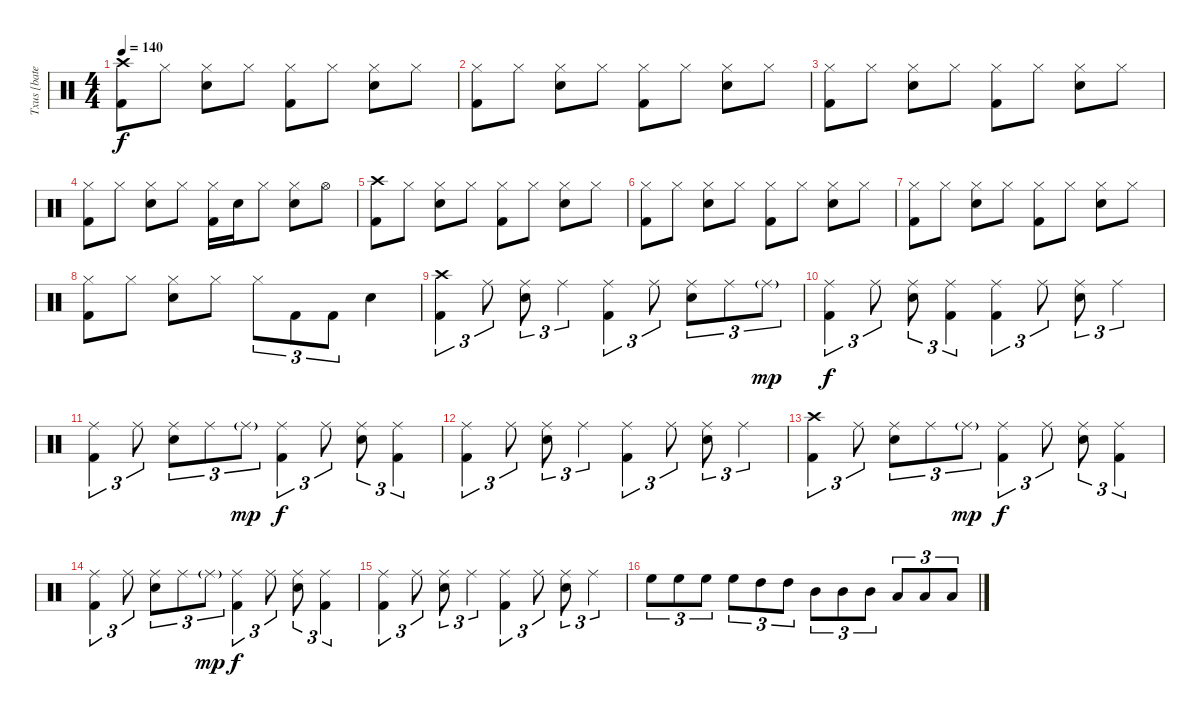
\track ("Txus [bateria]" "Txus [bate") {instrument percussion}
\staff {score}
\articulation defaults
\ts (4 4)
\tempo 140
\clef neutral
\ks c
("Crash high (hit)" "Kick (hit) 2").8{dy f} "Hi-Hat (closed)".8 ("Hi-Hat (closed)" "Snare (hit) 2").8 "Hi-Hat (closed)".8 ("Hi-Hat (closed)" "Kick (hit) 2").8 "Hi-Hat (closed)".8 ("Hi-Hat (closed)" "Snare (hit) 2").8 "Hi-Hat (closed)".8 |
("Hi-Hat (closed)" "Kick (hit) 2").8 "Hi-Hat (closed)".8 ("Hi-Hat (closed)" "Snare (hit) 2").8 "Hi-Hat (closed)".8 ("Hi-Hat (closed)" "Kick (hit) 2").8 "Hi-Hat (closed)".8 ("Hi-Hat (closed)" "Snare (hit) 2").8 "Hi-Hat (closed)".8 |
("Hi-Hat (closed)" "Kick (hit) 2").8 "Hi-Hat (closed)".8 ("Hi-Hat (closed)" "Snare (hit) 2").8 "Hi-Hat (closed)".8 ("Hi-Hat (closed)" "Kick (hit) 2").8 "Hi-Hat (closed)".8 ("Hi-Hat (closed)" "Snare (hit) 2").8 "Hi-Hat (closed)".8 |
("Hi-Hat (closed)" "Kick (hit) 2").8 "Hi-Hat (closed)".8 ("Hi-Hat (closed)" "Snare (hit) 2").8 "Hi-Hat (closed)".8 ("Hi-Hat (closed)" "Kick (hit) 2").16 "Snare (hit) 2".16 "Hi-Hat (closed)".8 ("Hi-Hat (closed)" "Snare (hit) 2").8 "Hi-Hat (open)".8 |
("Crash high (hit)" "Kick (hit) 2").8 "Hi-Hat (closed)".8 ("Hi-Hat (closed)" "Snare (hit) 2").8 "Hi-Hat (closed)".8 ("Hi-Hat (closed)" "Kick (hit) 2").8 "Hi-Hat (closed)".8 ("Hi-Hat (closed)" "Snare (hit) 2").8 "Hi-Hat (closed)".8 |
("Hi-Hat (closed)" "Kick (hit) 2").8 "Hi-Hat (closed)".8 ("Hi-Hat (closed)" "Snare (hit) 2").8 "Hi-Hat (closed)".8 ("Hi-Hat (closed)" "Kick (hit) 2").8 "Hi-Hat (closed)".8 ("Hi-Hat (closed)" "Snare (hit) 2").8 "Hi-Hat (closed)".8 |
("Hi-Hat (closed)" "Kick (hit) 2").8 "Hi-Hat (closed)".8 ("Hi-Hat (closed)" "Snare (hit) 2").8 "Hi-Hat (closed)".8 ("Hi-Hat (closed)" "Kick (hit) 2").8 "Hi-Hat (closed)".8 ("Hi-Hat (closed)" "Snare (hit) 2").8 "Hi-Hat (closed)".8 |
("Hi-Hat (closed)" "Kick (hit) 2").8 "Hi-Hat (closed)".8 ("Hi-Hat (closed)" "Snare (hit) 2").8 "Hi-Hat (closed)".8 "Hi-Hat (closed)".8{tu (3 2)} "Kick (hit) 2".8{tu (3 2)} "Kick (hit) 2".8{tu (3 2)} "Snare (hit) 2".4 |
("Crash high (hit)" "Kick (hit) 2").4{tu (3 2)} "Ride (middle)".8{tu (3 2)} ("Ride (middle)" "Snare (hit) 2").8{tu (3 2)} "Ride (middle)".4{tu (3 2)} ("Ride (middle)" "Kick (hit) 2").4{tu (3 2)} "Ride (middle)".8{tu (3 2)} ("Ride (middle)" "Snare (hit) 2").8{tu (3 2)} "Ride (middle)".8{tu (3 2)} "Ride (middle)"{g}.8{tu (3 2) dy mp} |
("Ride (middle)" "Kick (hit) 2").4{tu (3 2) dy f} "Ride (middle)".8{tu (3 2)} ("Ride (middle)" "Snare (hit) 2").8{tu (3 2)} ("Ride (middle)" "Kick (hit) 2").4{tu (3 2)} ("Ride (middle)" "Kick (hit) 2").4{tu (3 2)} "Ride (middle)".8{tu (3 2)} ("Ride (middle)" "Snare (hit) 2").8{tu (3 2)} "Ride (middle)".4{tu (3 2)} |
("Ride (middle)" "Kick (hit) 2").4{tu (3 2)} "Ride (middle)".8{tu (3 2)} ("Ride (middle)" "Snare (hit) 2").8{tu (3 2)} "Ride (middle)".8{tu (3 2)} "Ride (middle)"{g}.8{tu (3 2) dy mp} ("Ride (middle)" "Kick (hit) 2").4{tu (3 2) dy f} "Ride (middle)".8{tu (3 2)} ("Ride (middle)" "Snare (hit) 2").8{tu (3 2)} ("Ride (middle)" "Kick (hit) 2").4{tu (3 2)} |
("Ride (middle)" "Kick (hit) 2").4{tu (3 2)} "Ride (middle)".8{tu (3 2)} ("Ride (middle)" "Snare (hit) 2").8{tu (3 2)} "Ride (middle)".4{tu (3 2)} ("Ride (middle)" "Kick (hit) 2").4{tu (3 2)} "Ride (middle)".8{tu (3 2)} ("Ride (middle)" "Snare (hit) 2").8{tu (3 2)} "Ride (middle)".4{tu (3 2)} |
("Crash high (hit)" "Kick (hit) 2").4{tu (3 2)} "Ride (middle)".8{tu (3 2)} ("Ride (middle)" "Snare (hit) 2").8{tu (3 2)} "Ride (middle)".8{tu (3 2)} "Ride (middle)"{g}.8{tu (3 2) dy mp} ("Ride (middle)" "Kick (hit) 2").4{tu (3 2) dy f} "Ride (middle)".8{tu (3 2)} ("Ride (middle)" "Snare (hit) 2").8{tu (3 2)} ("Ride (middle)" "Kick (hit) 2").4{tu (3 2)} |
("Ride (middle)" "Kick (hit) 2").4{tu (3 2)} "Ride (middle)".8{tu (3 2)} ("Ride (middle)" "Snare (hit) 2").8{tu (3 2)} "Ride (middle)".8{tu (3 2)} "Ride (middle)"{g}.8{tu (3 2) dy mp} ("Ride (middle)" "Kick (hit) 2").4{tu (3 2) dy f} "Ride (middle)".8{tu (3 2)} ("Ride (middle)" "Snare (hit) 2").8{tu (3 2)} ("Ride (middle)" "Kick (hit) 2").4{tu (3 2)} |
("Ride (middle)" "Kick (hit) 2").4{tu (3 2)} "Ride (middle)".8{tu (3 2)} ("Ride (middle)" "Snare (hit) 2").8{tu (3 2)} "Ride (middle)".4{tu (3 2)} ("Ride (middle)" "Kick (hit) 2").4{tu (3 2)} "Ride (middle)".8{tu (3 2)} ("Ride (middle)" "Snare (hit) 2").8{tu (3 2)} "Ride (middle)".4{tu (3 2)} |
"High Floor Tom (hit)".8{tu (3 2)} "High Floor Tom (hit)".8{tu (3 2)} "High Floor Tom (hit)".8{tu (3 2)} "High Floor Tom (hit)".8{tu (3 2)} "High Tom (hit)".8{tu (3 2)} "High Tom (hit)".8{tu (3 2)} "Mid Tom (hit)".8{tu (3 2)} "Mid Tom (hit)".8{tu (3 2)} "Mid Tom (hit)".8{tu (3 2)} "Low Tom (hit)".8{tu (3 2)} "Low Tom (hit)".8{tu (3 2)} "Low Tom (hit)".8{tu (3 2)}
